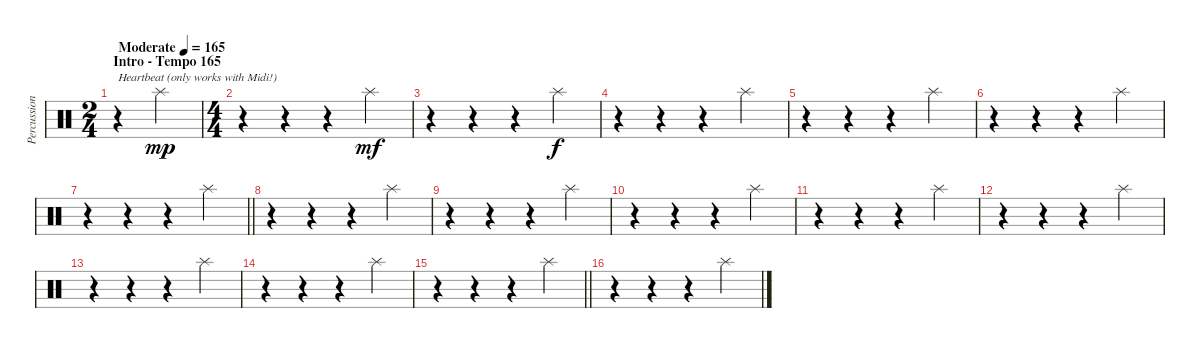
\track ("Percussion" "Percussion") {instrument percussion}
\staff {score}
\articulation defaults
\ts (2 4)
\section ("" "Intro - Tempo 165")
\tempo (165 "Moderate")
\clef neutral
\ks c
r.4{txt "Heartbeat (only works with Midi!)" dy mp} "Splash (hit)".4 |
\ts (4 4)
r.4 r.4 r.4 "Splash (hit)".4{dy mf} |
r.4 r.4 r.4 "Splash (hit)".4{dy f} |
r.4 r.4 r.4 "Splash (hit)".4 |
r.4 r.4 r.4 "Splash (hit)".4 |
r.4 r.4 r.4 "Splash (hit)".4 |
\barLineRight lightlight
r.4 r.4 r.4 "Splash (hit)".4 |
\section ("" "")
r.4 r.4 r.4 "Splash (hit)".4 |
r.4 r.4 r.4 "Splash (hit)".4 |
r.4 r.4 r.4 "Splash (hit)".4 |
r.4 r.4 r.4 "Splash (hit)".4 |
r.4 r.4 r.4 "Splash (hit)".4 |
r.4 r.4 r.4 "Splash (hit)".4 |
r.4 r.4 r.4 "Splash (hit)".4 |
\barLineRight lightlight
r.4 r.4 r.4 "Splash (hit)".4 |
\section ("" "")
r.4 r.4 r.4 "Splash (hit)".4
